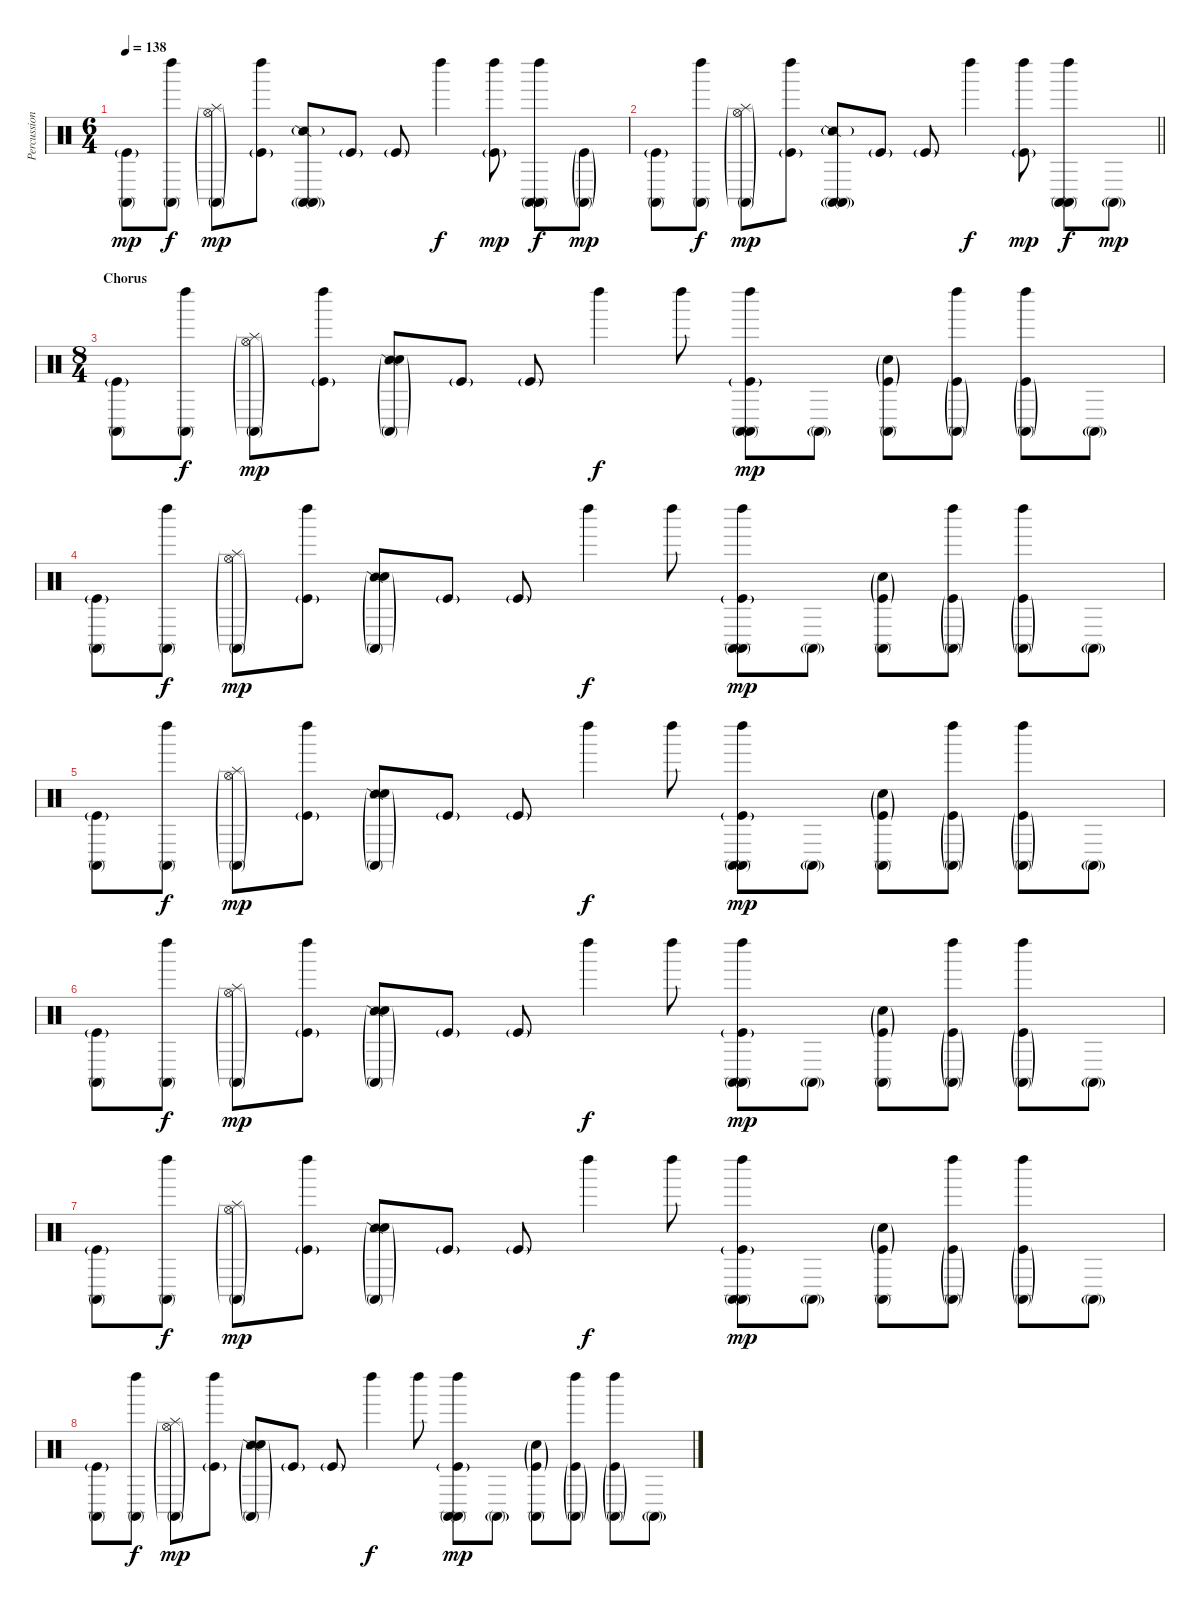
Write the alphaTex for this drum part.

\track ("Percussions" "Percussion") {instrument percussion}
\staff {score}
\articulation defaults
\ts (6 4)
\tempo 138
\clef neutral
\ks c
("Conga high (mute)" "Kick (hit)"{g}).8{dy mp} ("Conga high (mute)" "Left Maraca (hit)").8{dy f} ("Splash (hit)"{g} "Hi-Hat (open)"{g} "Conga high (mute)"{g}).8{dy mp} ("Kick (hit)"{g} "Left Maraca (hit)").8 ("Snare (side stick) 2"{g} "Conga high (mute)" "Conga high (mute)"{g}).8 "Kick (hit)"{g}.8 "Kick (hit)"{g}.8 "Left Maraca (hit)".4{dy f} ("Kick (hit)"{g} "Left Maraca (hit)").8{dy mp} ("Conga high (mute)" "Conga high (mute)" "Left Maraca (hit)").8{dy f} ("Conga high (mute)"{g} "Kick (hit)"{g}).8{dy mp} |
\barLineRight lightlight
("Conga high (mute)" "Kick (hit)"{g}).8 ("Conga high (mute)" "Left Maraca (hit)").8{dy f} ("Splash (hit)"{g} "Hi-Hat (open)"{g} "Conga high (mute)"{g}).8{dy mp} ("Kick (hit)"{g} "Left Maraca (hit)").8 ("Snare (side stick) 2"{g} "Conga high (mute)" "Conga high (mute)"{g}).8 "Kick (hit)"{g}.8 "Kick (hit)"{g}.8 "Left Maraca (hit)".4{dy f} ("Kick (hit)"{g} "Left Maraca (hit)").8{dy mp} ("Conga high (mute)" "Conga high (mute)" "Left Maraca (hit)").8{dy f} "Conga high (mute)"{g}.8{dy mp} |
\ts (8 4)
\section ("" "Chorus")
("Conga high (mute)" "Kick (hit)"{g}).8 ("Conga high (mute)" "Left Maraca (hit)").8{dy f} ("Splash (hit)"{g} "Hi-Hat (open)"{g} "Conga high (mute)"{g}).8{dy mp} ("Kick (hit)"{g} "Left Maraca (hit)").8 ("Snare (side stick) 2"{g} "Electric Snare (hit)"{g} "Conga high (mute)"{g}).8 "Kick (hit)"{g}.8 "Kick (hit)"{g}.8 "Left Maraca (hit)".4{dy f} "Left Maraca (hit)".8 ("Conga high (mute)" "Conga high (mute)" "Kick (hit)"{g} "Left Maraca (hit)").8{dy mp} "Conga high (mute)"{g}.8 ("Electric Snare (hit)"{g} "Conga high (mute)" "Kick (hit)"{g}).8 ("Conga high (mute)"{g} "Kick (hit)"{g} "Left Maraca (hit)").8 ("Conga high (mute)"{g} "Kick (hit)"{g} "Left Maraca (hit)").8 "Conga high (mute)"{g}.8 |
("Conga high (mute)" "Kick (hit)"{g}).8 ("Conga high (mute)" "Left Maraca (hit)").8{dy f} ("Splash (hit)"{g} "Hi-Hat (open)"{g} "Conga high (mute)"{g}).8{dy mp} ("Kick (hit)"{g} "Left Maraca (hit)").8 ("Snare (side stick) 2"{g} "Electric Snare (hit)"{g} "Conga high (mute)"{g}).8 "Kick (hit)"{g}.8 "Kick (hit)"{g}.8 "Left Maraca (hit)".4{dy f} "Left Maraca (hit)".8 ("Conga high (mute)" "Conga high (mute)" "Kick (hit)"{g} "Left Maraca (hit)").8{dy mp} "Conga high (mute)"{g}.8 ("Electric Snare (hit)"{g} "Conga high (mute)" "Kick (hit)"{g}).8 ("Conga high (mute)"{g} "Kick (hit)"{g} "Left Maraca (hit)").8 ("Conga high (mute)"{g} "Kick (hit)"{g} "Left Maraca (hit)").8 "Conga high (mute)"{g}.8 |
("Conga high (mute)" "Kick (hit)"{g}).8 ("Conga high (mute)" "Left Maraca (hit)").8{dy f} ("Splash (hit)"{g} "Hi-Hat (open)"{g} "Conga high (mute)"{g}).8{dy mp} ("Kick (hit)"{g} "Left Maraca (hit)").8 ("Snare (side stick) 2"{g} "Electric Snare (hit)"{g} "Conga high (mute)"{g}).8 "Kick (hit)"{g}.8 "Kick (hit)"{g}.8 "Left Maraca (hit)".4{dy f} "Left Maraca (hit)".8 ("Conga high (mute)" "Conga high (mute)" "Kick (hit)"{g} "Left Maraca (hit)").8{dy mp} "Conga high (mute)"{g}.8 ("Electric Snare (hit)"{g} "Conga high (mute)" "Kick (hit)"{g}).8 ("Conga high (mute)"{g} "Kick (hit)"{g} "Left Maraca (hit)").8 ("Conga high (mute)"{g} "Kick (hit)"{g} "Left Maraca (hit)").8 "Conga high (mute)"{g}.8 |
("Conga high (mute)" "Kick (hit)"{g}).8 ("Conga high (mute)" "Left Maraca (hit)").8{dy f} ("Splash (hit)"{g} "Hi-Hat (open)"{g} "Conga high (mute)"{g}).8{dy mp} ("Kick (hit)"{g} "Left Maraca (hit)").8 ("Snare (side stick) 2"{g} "Electric Snare (hit)"{g} "Conga high (mute)"{g}).8 "Kick (hit)"{g}.8 "Kick (hit)"{g}.8 "Left Maraca (hit)".4{dy f} "Left Maraca (hit)".8 ("Conga high (mute)" "Conga high (mute)" "Kick (hit)"{g} "Left Maraca (hit)").8{dy mp} "Conga high (mute)"{g}.8 ("Electric Snare (hit)"{g} "Conga high (mute)" "Kick (hit)"{g}).8 ("Conga high (mute)"{g} "Kick (hit)"{g} "Left Maraca (hit)").8 ("Conga high (mute)"{g} "Kick (hit)"{g} "Left Maraca (hit)").8 "Conga high (mute)"{g}.8 |
("Conga high (mute)" "Kick (hit)"{g}).8 ("Conga high (mute)" "Left Maraca (hit)").8{dy f} ("Splash (hit)"{g} "Hi-Hat (open)"{g} "Conga high (mute)"{g}).8{dy mp} ("Kick (hit)"{g} "Left Maraca (hit)").8 ("Snare (side stick) 2"{g} "Electric Snare (hit)"{g} "Conga high (mute)"{g}).8 "Kick (hit)"{g}.8 "Kick (hit)"{g}.8 "Left Maraca (hit)".4{dy f} "Left Maraca (hit)".8 ("Conga high (mute)" "Conga high (mute)" "Kick (hit)"{g} "Left Maraca (hit)").8{dy mp} "Conga high (mute)"{g}.8 ("Electric Snare (hit)"{g} "Conga high (mute)" "Kick (hit)"{g}).8 ("Conga high (mute)"{g} "Kick (hit)"{g} "Left Maraca (hit)").8 ("Conga high (mute)"{g} "Kick (hit)"{g} "Left Maraca (hit)").8 "Conga high (mute)"{g}.8 |
("Conga high (mute)" "Kick (hit)"{g}).8 ("Conga high (mute)" "Left Maraca (hit)").8{dy f} ("Splash (hit)"{g} "Hi-Hat (open)"{g} "Conga high (mute)"{g}).8{dy mp} ("Kick (hit)"{g} "Left Maraca (hit)").8 ("Snare (side stick) 2"{g} "Electric Snare (hit)"{g} "Conga high (mute)"{g}).8 "Kick (hit)"{g}.8 "Kick (hit)"{g}.8 "Left Maraca (hit)".4{dy f} "Left Maraca (hit)".8 ("Conga high (mute)" "Conga high (mute)" "Kick (hit)"{g} "Left Maraca (hit)").8{dy mp} "Conga high (mute)"{g}.8 ("Electric Snare (hit)"{g} "Conga high (mute)" "Kick (hit)"{g}).8 ("Conga high (mute)"{g} "Kick (hit)"{g} "Left Maraca (hit)").8 ("Conga high (mute)"{g} "Kick (hit)"{g} "Left Maraca (hit)").8 "Conga high (mute)"{g}.8
